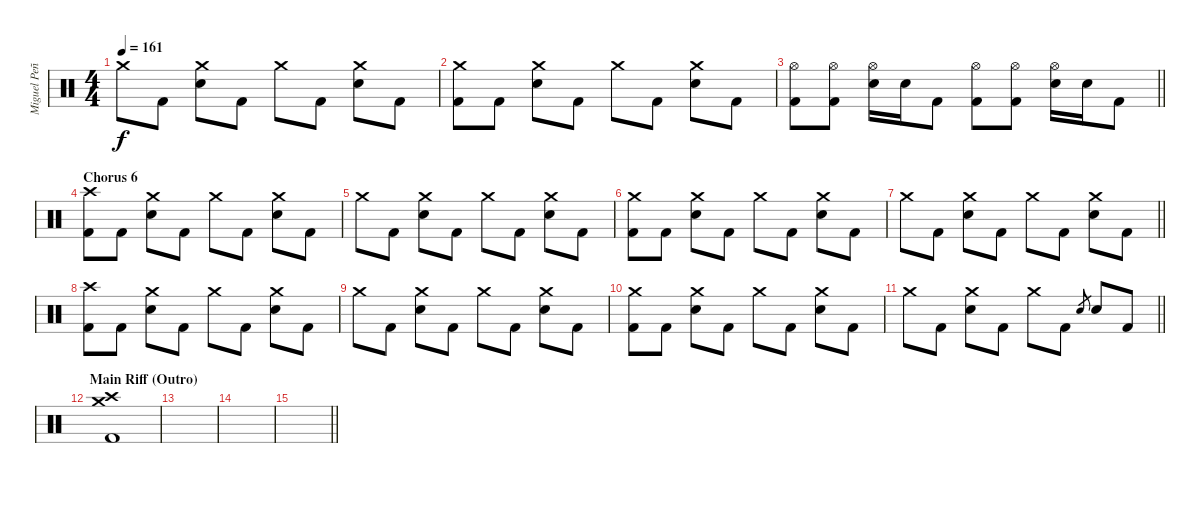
\track ("Miguel Peñas" "Miguel Peñ") {instrument percussion}
\staff {score}
\articulation defaults
\ts (4 4)
\tempo 161
\clef neutral
\ks c "Crash medium (hit)".8{dy f} "Kick (hit) 2".8
("Crash medium (hit)" "Electric Snare (hit)").8 "Kick (hit) 2".8 "Crash medium (hit)".8 "Kick (hit) 2".8 ("Crash medium (hit)" "Electric Snare (hit)").8 "Kick (hit) 2".8 |
("Crash medium (hit)" "Kick (hit) 2").8 "Kick (hit) 2".8 ("Crash medium (hit)" "Electric Snare (hit)").8 "Kick (hit) 2".8 "Crash medium (hit)".8 "Kick (hit) 2".8 ("Crash medium (hit)" "Electric Snare (hit)").8 "Kick (hit) 2".8 |
\barLineRight lightlight
("Hi-Hat (open)" "Kick (hit) 2").8 ("Hi-Hat (open)" "Kick (hit) 2").8 ("Hi-Hat (open)" "Electric Snare (hit)").16 "Electric Snare (hit)".16 "Kick (hit) 2".8 ("Hi-Hat (open)" "Kick (hit) 2").8 ("Hi-Hat (open)" "Kick (hit) 2").8 ("Hi-Hat (open)" "Electric Snare (hit)").16 "Electric Snare (hit)".16 "Kick (hit) 2".8 |
\section ("" "Chorus 6")
("Crash high (hit)" "Kick (hit) 2").8 "Kick (hit) 2".8 ("Crash medium (hit)" "Electric Snare (hit)").8 "Kick (hit) 2".8 "Crash medium (hit)".8 "Kick (hit) 2".8 ("Crash medium (hit)" "Electric Snare (hit)").8 "Kick (hit) 2".8 |
"Crash medium (hit)".8 "Kick (hit) 2".8 ("Crash medium (hit)" "Electric Snare (hit)").8 "Kick (hit) 2".8 "Crash medium (hit)".8 "Kick (hit) 2".8 ("Crash medium (hit)" "Electric Snare (hit)").8 "Kick (hit) 2".8 |
("Crash medium (hit)" "Kick (hit) 2").8 "Kick (hit) 2".8 ("Crash medium (hit)" "Electric Snare (hit)").8 "Kick (hit) 2".8 "Crash medium (hit)".8 "Kick (hit) 2".8 ("Crash medium (hit)" "Electric Snare (hit)").8 "Kick (hit) 2".8 |
\barLineRight lightlight "Crash medium (hit)".8 "Kick (hit) 2".8
("Crash medium (hit)" "Electric Snare (hit)").8 "Kick (hit) 2".8 "Crash medium (hit)".8 "Kick (hit) 2".8 ("Crash medium (hit)" "Electric Snare (hit)").8 "Kick (hit) 2".8 |
("Crash high (hit)" "Kick (hit) 2").8 "Kick (hit) 2".8 ("Crash medium (hit)" "Electric Snare (hit)").8 "Kick (hit) 2".8 "Crash medium (hit)".8 "Kick (hit) 2".8 ("Crash medium (hit)" "Electric Snare (hit)").8 "Kick (hit) 2".8 |
"Crash medium (hit)".8 "Kick (hit) 2".8 ("Crash medium (hit)" "Electric Snare (hit)").8 "Kick (hit) 2".8 "Crash medium (hit)".8 "Kick (hit) 2".8 ("Crash medium (hit)" "Electric Snare (hit)").8 "Kick (hit) 2".8 |
("Crash medium (hit)" "Kick (hit) 2").8 "Kick (hit) 2".8 ("Crash medium (hit)" "Electric Snare (hit)").8 "Kick (hit) 2".8 "Crash medium (hit)".8 "Kick (hit) 2".8 ("Crash medium (hit)" "Electric Snare (hit)").8 "Kick (hit) 2".8 |
\barLineRight lightlight "Crash medium (hit)".8 "Kick (hit) 2".8
("Crash medium (hit)" "Electric Snare (hit)").8 "Kick (hit) 2".8 "Crash medium (hit)".8 "Kick (hit) 2".8 "Snare (hit) 2".8{gr} "Electric Snare (hit)".8 "Kick (hit) 2".8 |
\section ("" "Main Riff (Outro)")
("Crash high (hit)" "Crash medium (hit)" "Kick (hit) 2").1 |
|
|
\barLineRight lightlight
